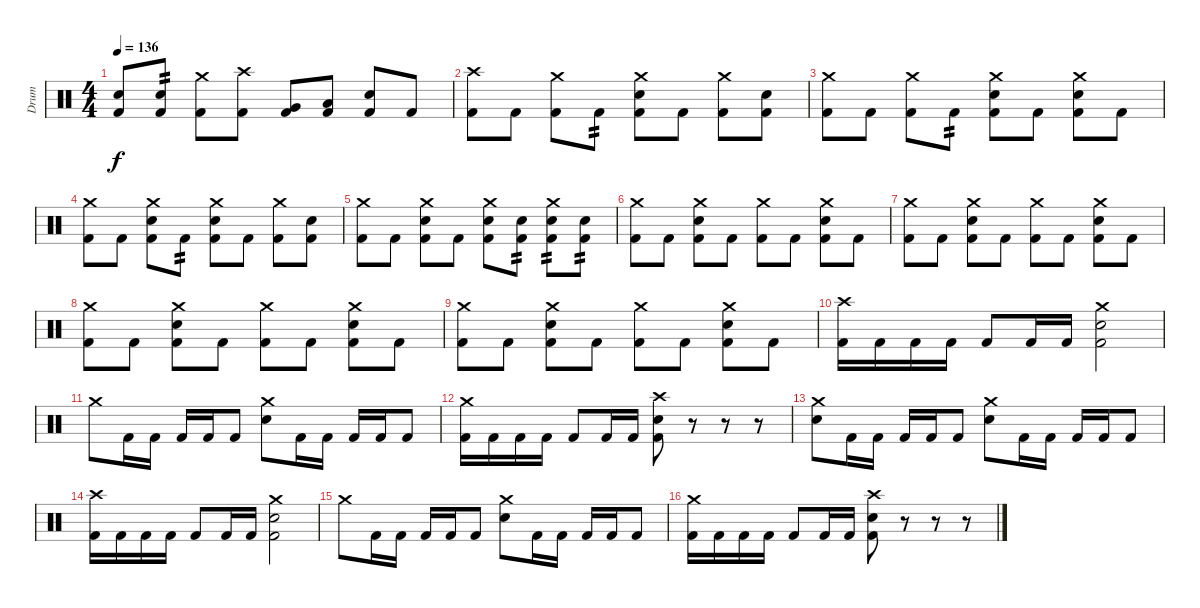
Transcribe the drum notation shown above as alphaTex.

\track ("Drum" "Drum") {instrument percussion}
\staff {score}
\articulation defaults
\ts (4 4)
\tempo 136
\clef neutral
\ks c
("Electric Snare (hit)" "Kick (hit) 2").8{dy f} ("Electric Snare (hit)" "Kick (hit) 2").8{tp 2} ("Crash medium (hit)" "Kick (hit) 2").8 ("Crash high (hit)" "Kick (hit) 2").8 ("Very Low Tom (hit)" "Kick (hit) 2").8 ("Low Floor Tom (hit)" "Kick (hit) 2").8 ("Electric Snare (hit)" "Kick (hit) 2").8 "Kick (hit) 2".8 |
("Crash high (hit)" "Kick (hit) 2").8 "Kick (hit) 2".8 ("Crash medium (hit)" "Kick (hit) 2").8 "Kick (hit) 2".8{tp 2} ("Crash medium (hit)" "Electric Snare (hit)" "Kick (hit) 2").8 "Kick (hit) 2".8 ("Crash medium (hit)" "Kick (hit) 2").8 ("Electric Snare (hit)" "Kick (hit) 2").8 |
("Crash medium (hit)" "Kick (hit) 2").8 "Kick (hit) 2".8 ("Crash medium (hit)" "Kick (hit) 2").8 "Kick (hit) 2".8{tp 2} ("Crash medium (hit)" "Electric Snare (hit)" "Kick (hit) 2").8 "Kick (hit) 2".8 ("Crash medium (hit)" "Electric Snare (hit)" "Kick (hit) 2").8 "Kick (hit) 2".8 |
("Crash medium (hit)" "Kick (hit) 2").8 "Kick (hit) 2".8 ("Crash medium (hit)" "Electric Snare (hit)" "Kick (hit) 2").8 "Kick (hit) 2".8{tp 2} ("Crash medium (hit)" "Electric Snare (hit)" "Kick (hit) 2").8 "Kick (hit) 2".8 ("Crash medium (hit)" "Kick (hit) 2").8 ("Electric Snare (hit)" "Kick (hit) 2").8 |
("Crash medium (hit)" "Kick (hit) 2").8 "Kick (hit) 2".8 ("Crash medium (hit)" "Electric Snare (hit)" "Kick (hit) 2").8 "Kick (hit) 2".8 ("Crash medium (hit)" "Electric Snare (hit)" "Kick (hit) 2").8 ("Electric Snare (hit)" "Kick (hit) 2").8{tp 2} ("Crash medium (hit)" "Electric Snare (hit)" "Kick (hit) 2").8{tp 2} ("Electric Snare (hit)" "Kick (hit) 2").8{tp 2} |
("Crash medium (hit)" "Kick (hit) 2").8 "Kick (hit) 2".8 ("Crash medium (hit)" "Electric Snare (hit)" "Kick (hit) 2").8 "Kick (hit) 2".8 ("Crash medium (hit)" "Kick (hit) 2").8 "Kick (hit) 2".8 ("Crash medium (hit)" "Electric Snare (hit)" "Kick (hit) 2").8 "Kick (hit) 2".8 |
("Crash medium (hit)" "Kick (hit) 2").8 "Kick (hit) 2".8 ("Crash medium (hit)" "Electric Snare (hit)" "Kick (hit) 2").8 "Kick (hit) 2".8 ("Crash medium (hit)" "Kick (hit) 2").8 "Kick (hit) 2".8 ("Crash medium (hit)" "Electric Snare (hit)" "Kick (hit) 2").8 "Kick (hit) 2".8 |
("Crash medium (hit)" "Kick (hit) 2").8 "Kick (hit) 2".8 ("Crash medium (hit)" "Electric Snare (hit)" "Kick (hit) 2").8 "Kick (hit) 2".8 ("Crash medium (hit)" "Kick (hit) 2").8 "Kick (hit) 2".8 ("Crash medium (hit)" "Electric Snare (hit)" "Kick (hit) 2").8 "Kick (hit) 2".8 |
("Crash medium (hit)" "Kick (hit) 2").8 "Kick (hit) 2".8 ("Crash medium (hit)" "Electric Snare (hit)" "Kick (hit) 2").8 "Kick (hit) 2".8 ("Crash medium (hit)" "Kick (hit) 2").8 "Kick (hit) 2".8 ("Crash medium (hit)" "Electric Snare (hit)" "Kick (hit) 2").8 "Kick (hit) 2".8 |
("Crash high (hit)" "Kick (hit) 2").16 "Kick (hit) 2".16 "Kick (hit) 2".16 "Kick (hit) 2".16 "Kick (hit) 2".8 "Kick (hit) 2".16 "Kick (hit) 2".16 ("Crash medium (hit)" "Electric Snare (hit)" "Kick (hit) 2").2 |
"Crash medium (hit)".8 "Kick (hit) 2".16 "Kick (hit) 2".16 "Kick (hit) 2".16 "Kick (hit) 2".16 "Kick (hit) 2".8 ("Crash medium (hit)" "Electric Snare (hit)").8 "Kick (hit) 2".16 "Kick (hit) 2".16 "Kick (hit) 2".16 "Kick (hit) 2".16 "Kick (hit) 2".8 |
("Crash medium (hit)" "Kick (hit) 2").16 "Kick (hit) 2".16 "Kick (hit) 2".16 "Kick (hit) 2".16 "Kick (hit) 2".8 "Kick (hit) 2".16 "Kick (hit) 2".16 ("Crash high (hit)" "Electric Snare (hit)" "Kick (hit) 2").8 r.8 r.8 r.8 |
("Crash medium (hit)" "Electric Snare (hit)").8 "Kick (hit) 2".16 "Kick (hit) 2".16 "Kick (hit) 2".16 "Kick (hit) 2".16 "Kick (hit) 2".8 ("Crash medium (hit)" "Electric Snare (hit)").8 "Kick (hit) 2".16 "Kick (hit) 2".16 "Kick (hit) 2".16 "Kick (hit) 2".16 "Kick (hit) 2".8 |
("Crash high (hit)" "Kick (hit) 2").16 "Kick (hit) 2".16 "Kick (hit) 2".16 "Kick (hit) 2".16 "Kick (hit) 2".8 "Kick (hit) 2".16 "Kick (hit) 2".16 ("Crash medium (hit)" "Electric Snare (hit)" "Kick (hit) 2").2 |
"Crash medium (hit)".8 "Kick (hit) 2".16 "Kick (hit) 2".16 "Kick (hit) 2".16 "Kick (hit) 2".16 "Kick (hit) 2".8 ("Crash medium (hit)" "Electric Snare (hit)").8 "Kick (hit) 2".16 "Kick (hit) 2".16 "Kick (hit) 2".16 "Kick (hit) 2".16 "Kick (hit) 2".8 |
("Crash medium (hit)" "Kick (hit) 2").16 "Kick (hit) 2".16 "Kick (hit) 2".16 "Kick (hit) 2".16 "Kick (hit) 2".8 "Kick (hit) 2".16 "Kick (hit) 2".16 ("Crash high (hit)" "Electric Snare (hit)" "Kick (hit) 2").8 r.8 r.8 r.8
